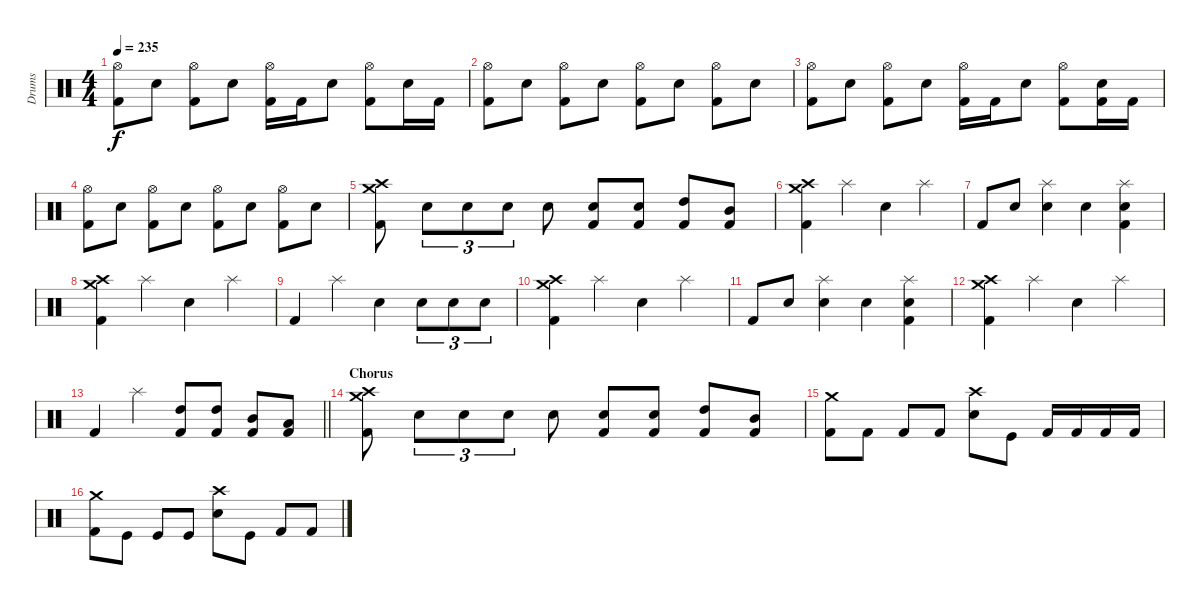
\track ("Drums" "Drums") {instrument percussion}
\staff {score}
\articulation defaults
\ts (4 4)
\tempo 235
\clef neutral
\ks c
("Hi-Hat (open)" "Kick (hit) 2").8{dy f} "Snare (hit) 2".8 ("Hi-Hat (open)" "Kick (hit) 2").8 "Snare (hit) 2".8 ("Hi-Hat (open)" "Kick (hit) 2").16 "Kick (hit) 2".16 "Snare (hit) 2".8 ("Hi-Hat (open)" "Kick (hit) 2").8 "Snare (hit) 2".16 "Kick (hit) 2".16 |
("Hi-Hat (open)" "Kick (hit) 2").8 "Snare (hit) 2".8 ("Hi-Hat (open)" "Kick (hit) 2").8 "Snare (hit) 2".8 ("Hi-Hat (open)" "Kick (hit) 2").8 "Snare (hit) 2".8 ("Hi-Hat (open)" "Kick (hit) 2").8 "Snare (hit) 2".8 |
("Hi-Hat (open)" "Kick (hit) 2").8 "Snare (hit) 2".8 ("Hi-Hat (open)" "Kick (hit) 2").8 "Snare (hit) 2".8 ("Hi-Hat (open)" "Kick (hit) 2").16 "Kick (hit) 2".16 "Snare (hit) 2".8 ("Hi-Hat (open)" "Kick (hit) 2").8 ("Snare (hit) 2" "Kick (hit) 2").16 "Kick (hit) 2".16 |
("Hi-Hat (open)" "Kick (hit) 2").8 "Snare (hit) 2".8 ("Hi-Hat (open)" "Kick (hit) 2").8 "Snare (hit) 2".8 ("Hi-Hat (open)" "Kick (hit) 2").8 "Snare (hit) 2".8 ("Hi-Hat (open)" "Kick (hit) 2").8 "Snare (hit) 2".8 |
("Crash medium (hit)" "Crash high (hit)" "Kick (hit) 2").8 "Snare (hit) 2".8{tu (3 2)} "Snare (hit) 2".8{tu (3 2)} "Snare (hit) 2".8{tu (3 2)} "Snare (hit) 2".8 ("Snare (hit) 2" "Kick (hit) 2").8 ("Snare (hit) 2" "Kick (hit) 2").8 ("High Tom (hit)" "Kick (hit) 2").8 ("Mid Tom (hit)" "Kick (hit) 2").8 |
("Crash medium (hit)" "Crash high (hit)" "Kick (hit) 2").4 "Splash (hit)".4 "Snare (hit) 2".4 "Splash (hit)".4 |
"Kick (hit) 2".8 "Snare (hit) 2".8 ("Splash (hit)" "Snare (hit) 2").4 "Snare (hit) 2".4 ("Splash (hit)" "Snare (hit) 2" "Kick (hit) 2").4 |
("Crash medium (hit)" "Crash high (hit)" "Kick (hit) 2").4 "Splash (hit)".4 "Snare (hit) 2".4 "Splash (hit)".4 |
"Kick (hit) 2".4 "Splash (hit)".4 "Snare (hit) 2".4 "Snare (hit) 2".8{tu (3 2)} "Snare (hit) 2".8{tu (3 2)} "Snare (hit) 2".8{tu (3 2)} |
("Crash medium (hit)" "Crash high (hit)" "Kick (hit) 2").4 "Splash (hit)".4 "Snare (hit) 2".4 "Splash (hit)".4 |
"Kick (hit) 2".8 "Snare (hit) 2".8 ("Splash (hit)" "Snare (hit) 2").4 "Snare (hit) 2".4 ("Splash (hit)" "Snare (hit) 2" "Kick (hit) 2").4 |
("Crash medium (hit)" "Crash high (hit)" "Kick (hit) 2").4 "Splash (hit)".4 "Snare (hit) 2".4 "Splash (hit)".4 |
\barLineRight lightlight "Kick (hit) 2".4 "Splash (hit)".4
("High Tom (hit)" "Kick (hit) 2").8 ("High Tom (hit)" "Kick (hit) 2").8 ("Mid Tom (hit)" "Kick (hit) 2").8 ("Low Tom (hit)" "Kick (hit) 2").8 |
\section ("" "Chorus")
("Crash medium (hit)" "Crash high (hit)" "Kick (hit) 2").8 "Snare (hit) 2".8{tu (3 2)} "Snare (hit) 2".8{tu (3 2)} "Snare (hit) 2".8{tu (3 2)} "Snare (hit) 2".8 ("Snare (hit) 2" "Kick (hit) 2").8 ("Snare (hit) 2" "Kick (hit) 2").8 ("High Tom (hit)" "Kick (hit) 2").8 ("Mid Tom (hit)" "Kick (hit) 2").8 |
("Crash medium (hit)" "Kick (hit) 2").8 "Kick (hit) 2".8 "Kick (hit) 2".8 "Kick (hit) 2".8 ("Crash high (hit)" "Snare (hit) 2").8 "Kick (hit)".8 "Kick (hit) 2".16 "Kick (hit) 2".16 "Kick (hit) 2".16 "Kick (hit) 2".16 |
("Crash medium (hit)" "Kick (hit) 2").8 "Kick (hit)".8 "Kick (hit)".8 "Kick (hit)".8 ("Crash high (hit)" "Snare (hit) 2").8 "Kick (hit)".8 "Kick (hit) 2".8 "Kick (hit) 2".8
